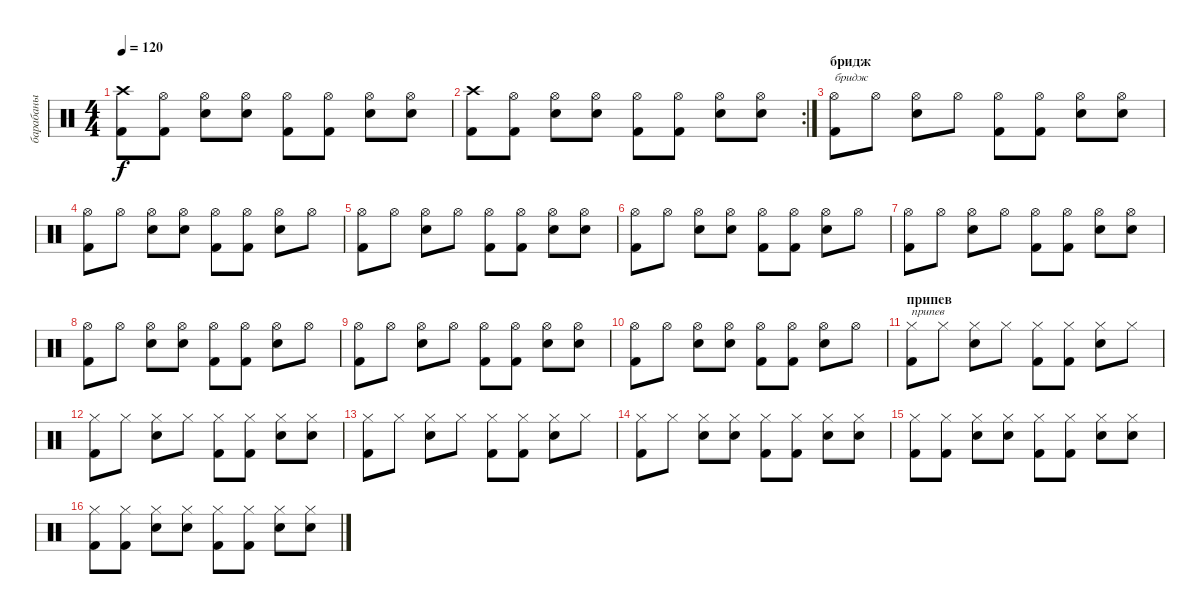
\track ("барабаны" "барабаны") {instrument percussion}
\staff {score}
\articulation defaults
\ts (4 4)
\tempo 120
\clef neutral
\ks c
("Crash high (hit)" "Kick (hit) 2").8{dy f} ("Hi-Hat (open)" "Kick (hit) 2").8 ("Hi-Hat (open)" "Snare (hit) 2").8 ("Hi-Hat (open)" "Snare (hit) 2").8 ("Hi-Hat (open)" "Kick (hit) 2").8 ("Hi-Hat (open)" "Kick (hit) 2").8 ("Hi-Hat (open)" "Snare (hit) 2").8 ("Hi-Hat (open)" "Snare (hit) 2").8 |
\rc 2
("Crash high (hit)" "Kick (hit) 2").8 ("Hi-Hat (open)" "Kick (hit) 2").8 ("Hi-Hat (open)" "Snare (hit) 2").8 ("Hi-Hat (open)" "Snare (hit) 2").8 ("Hi-Hat (open)" "Kick (hit) 2").8 ("Hi-Hat (open)" "Kick (hit) 2").8 ("Hi-Hat (open)" "Snare (hit) 2").8 ("Hi-Hat (open)" "Snare (hit) 2").8 |
\section ("" "бридж")
("Hi-Hat (open)" "Kick (hit) 2").8{txt "бридж"} "Hi-Hat (open)".8 ("Hi-Hat (open)" "Snare (hit) 2").8 "Hi-Hat (open)".8 ("Hi-Hat (open)" "Kick (hit) 2").8 ("Hi-Hat (open)" "Kick (hit) 2").8 ("Hi-Hat (open)" "Snare (hit) 2").8 ("Hi-Hat (open)" "Snare (hit) 2").8 |
("Hi-Hat (open)" "Kick (hit) 2").8 "Hi-Hat (open)".8 ("Hi-Hat (open)" "Snare (hit) 2").8 ("Hi-Hat (open)" "Snare (hit) 2").8 ("Hi-Hat (open)" "Kick (hit) 2").8 ("Hi-Hat (open)" "Kick (hit) 2").8 ("Hi-Hat (open)" "Snare (hit) 2").8 "Hi-Hat (open)".8 |
("Hi-Hat (open)" "Kick (hit) 2").8 "Hi-Hat (open)".8 ("Hi-Hat (open)" "Snare (hit) 2").8 "Hi-Hat (open)".8 ("Hi-Hat (open)" "Kick (hit) 2").8 ("Hi-Hat (open)" "Kick (hit) 2").8 ("Hi-Hat (open)" "Snare (hit) 2").8 ("Hi-Hat (open)" "Snare (hit) 2").8 |
("Hi-Hat (open)" "Kick (hit) 2").8 "Hi-Hat (open)".8 ("Hi-Hat (open)" "Snare (hit) 2").8 ("Hi-Hat (open)" "Snare (hit) 2").8 ("Hi-Hat (open)" "Kick (hit) 2").8 ("Hi-Hat (open)" "Kick (hit) 2").8 ("Hi-Hat (open)" "Snare (hit) 2").8 "Hi-Hat (open)".8 |
("Hi-Hat (open)" "Kick (hit) 2").8 "Hi-Hat (open)".8 ("Hi-Hat (open)" "Snare (hit) 2").8 "Hi-Hat (open)".8 ("Hi-Hat (open)" "Kick (hit) 2").8 ("Hi-Hat (open)" "Kick (hit) 2").8 ("Hi-Hat (open)" "Snare (hit) 2").8 ("Hi-Hat (open)" "Snare (hit) 2").8 |
("Hi-Hat (open)" "Kick (hit) 2").8 "Hi-Hat (open)".8 ("Hi-Hat (open)" "Snare (hit) 2").8 ("Hi-Hat (open)" "Snare (hit) 2").8 ("Hi-Hat (open)" "Kick (hit) 2").8 ("Hi-Hat (open)" "Kick (hit) 2").8 ("Hi-Hat (open)" "Snare (hit) 2").8 "Hi-Hat (open)".8 |
("Hi-Hat (open)" "Kick (hit) 2").8 "Hi-Hat (open)".8 ("Hi-Hat (open)" "Snare (hit) 2").8 "Hi-Hat (open)".8 ("Hi-Hat (open)" "Kick (hit) 2").8 ("Hi-Hat (open)" "Kick (hit) 2").8 ("Hi-Hat (open)" "Snare (hit) 2").8 ("Hi-Hat (open)" "Snare (hit) 2").8 |
("Hi-Hat (open)" "Kick (hit) 2").8 "Hi-Hat (open)".8 ("Hi-Hat (open)" "Snare (hit) 2").8 ("Hi-Hat (open)" "Snare (hit) 2").8 ("Hi-Hat (open)" "Kick (hit) 2").8 ("Hi-Hat (open)" "Kick (hit) 2").8 ("Hi-Hat (open)" "Snare (hit) 2").8 "Hi-Hat (open)".8 |
\section ("" "припев")
("Hi-Hat (closed)" "Kick (hit) 2").8{txt "припев"} "Hi-Hat (closed)".8 ("Hi-Hat (closed)" "Snare (hit) 2").8 "Hi-Hat (closed)".8 ("Hi-Hat (closed)" "Kick (hit) 2").8 ("Hi-Hat (closed)" "Kick (hit) 2").8 ("Hi-Hat (closed)" "Snare (hit) 2").8 "Hi-Hat (closed)".8 |
("Hi-Hat (closed)" "Kick (hit) 2").8 "Hi-Hat (closed)".8 ("Hi-Hat (closed)" "Snare (hit) 2").8 "Hi-Hat (closed)".8 ("Hi-Hat (closed)" "Kick (hit) 2").8 ("Hi-Hat (closed)" "Kick (hit) 2").8 ("Hi-Hat (closed)" "Snare (hit) 2").8 ("Hi-Hat (closed)" "Snare (hit) 2").8 |
("Hi-Hat (closed)" "Kick (hit) 2").8 "Hi-Hat (closed)".8 ("Hi-Hat (closed)" "Snare (hit) 2").8 "Hi-Hat (closed)".8 ("Hi-Hat (closed)" "Kick (hit) 2").8 ("Hi-Hat (closed)" "Kick (hit) 2").8 ("Hi-Hat (closed)" "Snare (hit) 2").8 "Hi-Hat (closed)".8 |
("Hi-Hat (closed)" "Kick (hit) 2").8 "Hi-Hat (closed)".8 ("Hi-Hat (closed)" "Snare (hit) 2").8 ("Hi-Hat (closed)" "Snare (hit) 2").8 ("Hi-Hat (closed)" "Kick (hit) 2").8 ("Hi-Hat (closed)" "Kick (hit) 2").8 ("Hi-Hat (closed)" "Snare (hit) 2").8 ("Hi-Hat (closed)" "Snare (hit) 2").8 |
("Hi-Hat (closed)" "Kick (hit) 2").8 ("Hi-Hat (closed)" "Kick (hit) 2").8 ("Hi-Hat (closed)" "Snare (hit) 2").8 ("Hi-Hat (closed)" "Snare (hit) 2").8 ("Hi-Hat (closed)" "Kick (hit) 2").8 ("Hi-Hat (closed)" "Kick (hit) 2").8 ("Hi-Hat (closed)" "Snare (hit) 2").8 ("Hi-Hat (closed)" "Snare (hit) 2").8 |
("Hi-Hat (closed)" "Kick (hit) 2").8 ("Hi-Hat (closed)" "Kick (hit) 2").8 ("Hi-Hat (closed)" "Snare (hit) 2").8 ("Hi-Hat (closed)" "Snare (hit) 2").8 ("Hi-Hat (closed)" "Kick (hit) 2").8 ("Hi-Hat (closed)" "Kick (hit) 2").8 ("Hi-Hat (closed)" "Snare (hit) 2").8 ("Hi-Hat (closed)" "Snare (hit) 2").8
